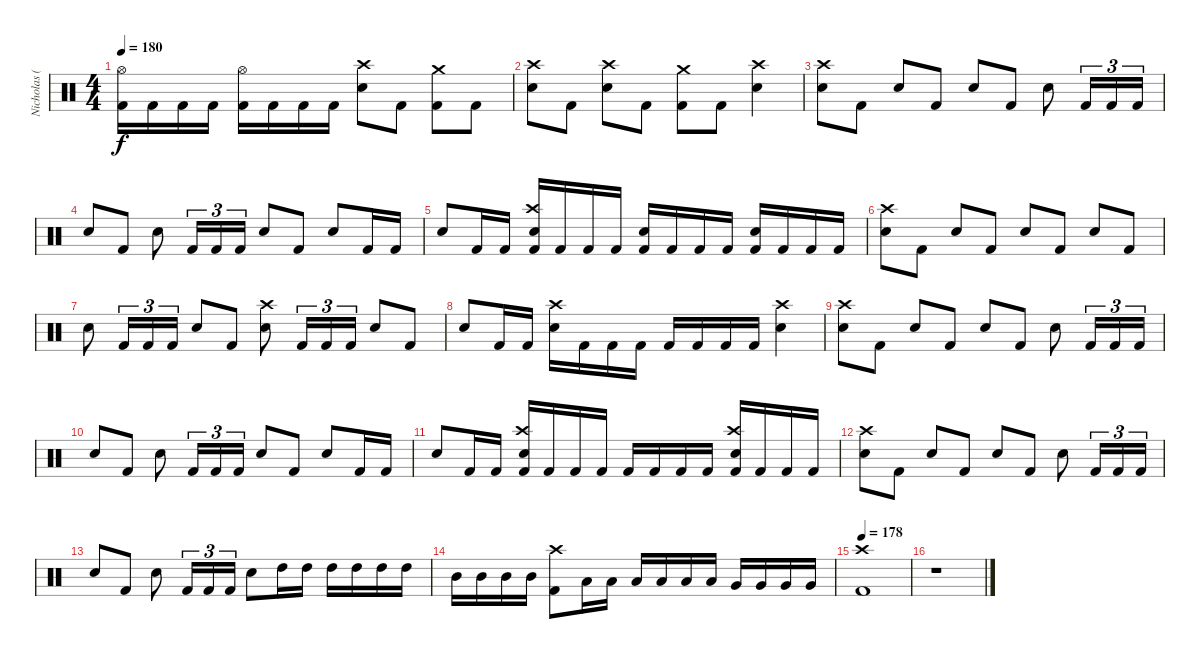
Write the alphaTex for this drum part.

\track ("Nicholas (Drums)" "Nicholas (") {instrument percussion}
\staff {score}
\articulation defaults
\ts (4 4)
\tempo 180
\clef neutral
\ks c
("Hi-Hat (open)" "Kick (hit) 2").16{dy f} "Kick (hit) 2".16 "Kick (hit) 2".16 "Kick (hit) 2".16 ("Hi-Hat (open)" "Kick (hit) 2").16 "Kick (hit) 2".16 "Kick (hit) 2".16 "Kick (hit) 2".16 ("Crash high (hit)" "Electric Snare (hit)").8 "Kick (hit) 2".8 ("Crash medium (hit)" "Kick (hit) 2").8 "Kick (hit) 2".8 |
("Crash high (hit)" "Electric Snare (hit)").8 "Kick (hit) 2".8 ("Crash high (hit)" "Electric Snare (hit)").8 "Kick (hit) 2".8 ("Crash medium (hit)" "Kick (hit) 2").8 "Kick (hit) 2".8 ("Crash high (hit)" "Electric Snare (hit)").4 |
("Crash high (hit)" "Electric Snare (hit)").8 "Kick (hit) 2".8 "Electric Snare (hit)".8 "Kick (hit) 2".8 "Electric Snare (hit)".8 "Kick (hit) 2".8 "Electric Snare (hit)".8 "Kick (hit) 2".16{tu (3 2)} "Kick (hit) 2".16{tu (3 2)} "Kick (hit) 2".16{tu (3 2)} |
"Electric Snare (hit)".8 "Kick (hit) 2".8 "Electric Snare (hit)".8 "Kick (hit) 2".16{tu (3 2)} "Kick (hit) 2".16{tu (3 2)} "Kick (hit) 2".16{tu (3 2)} "Electric Snare (hit)".8 "Kick (hit) 2".8 "Electric Snare (hit)".8 "Kick (hit) 2".16 "Kick (hit) 2".16 |
"Electric Snare (hit)".8 "Kick (hit) 2".16 "Kick (hit) 2".16 ("Crash high (hit)" "Electric Snare (hit)" "Kick (hit) 2").16 "Kick (hit) 2".16 "Kick (hit) 2".16 "Kick (hit) 2".16 ("Electric Snare (hit)" "Kick (hit) 2").16 "Kick (hit) 2".16 "Kick (hit) 2".16 "Kick (hit) 2".16 ("Electric Snare (hit)" "Kick (hit) 2").16 "Kick (hit) 2".16 "Kick (hit) 2".16 "Kick (hit) 2".16 |
("Crash high (hit)" "Electric Snare (hit)").8 "Kick (hit) 2".8 "Electric Snare (hit)".8 "Kick (hit) 2".8 "Electric Snare (hit)".8 "Kick (hit) 2".8 "Electric Snare (hit)".8 "Kick (hit) 2".8 |
"Electric Snare (hit)".8 "Kick (hit) 2".16{tu (3 2)} "Kick (hit) 2".16{tu (3 2)} "Kick (hit) 2".16{tu (3 2)} "Electric Snare (hit)".8 "Kick (hit) 2".8 ("Crash high (hit)" "Electric Snare (hit)").8 "Kick (hit) 2".16{tu (3 2)} "Kick (hit) 2".16{tu (3 2)} "Kick (hit) 2".16{tu (3 2)} "Electric Snare (hit)".8 "Kick (hit) 2".8 |
"Electric Snare (hit)".8 "Kick (hit) 2".16 "Kick (hit) 2".16 ("Crash high (hit)" "Electric Snare (hit)").16 "Kick (hit) 2".16 "Kick (hit) 2".16 "Kick (hit) 2".16 "Kick (hit) 2".16 "Kick (hit) 2".16 "Kick (hit) 2".16 "Kick (hit) 2".16 ("Crash high (hit)" "Electric Snare (hit)").4 |
("Crash high (hit)" "Electric Snare (hit)").8 "Kick (hit) 2".8 "Electric Snare (hit)".8 "Kick (hit) 2".8 "Electric Snare (hit)".8 "Kick (hit) 2".8 "Electric Snare (hit)".8 "Kick (hit) 2".16{tu (3 2)} "Kick (hit) 2".16{tu (3 2)} "Kick (hit) 2".16{tu (3 2)} |
"Electric Snare (hit)".8 "Kick (hit) 2".8 "Electric Snare (hit)".8 "Kick (hit) 2".16{tu (3 2)} "Kick (hit) 2".16{tu (3 2)} "Kick (hit) 2".16{tu (3 2)} "Electric Snare (hit)".8 "Kick (hit) 2".8 "Electric Snare (hit)".8 "Kick (hit) 2".16 "Kick (hit) 2".16 |
"Electric Snare (hit)".8 "Kick (hit) 2".16 "Kick (hit) 2".16 ("Crash high (hit)" "Electric Snare (hit)" "Kick (hit) 2").16 "Kick (hit) 2".16 "Kick (hit) 2".16 "Kick (hit) 2".16 "Kick (hit) 2".16 "Kick (hit) 2".16 "Kick (hit) 2".16 "Kick (hit) 2".16 ("Crash high (hit)" "Electric Snare (hit)" "Kick (hit) 2").16 "Kick (hit) 2".16 "Kick (hit) 2".16 "Kick (hit) 2".16 |
("Crash high (hit)" "Electric Snare (hit)").8 "Kick (hit) 2".8 "Electric Snare (hit)".8 "Kick (hit) 2".8 "Electric Snare (hit)".8 "Kick (hit) 2".8 "Electric Snare (hit)".8 "Kick (hit) 2".16{tu (3 2)} "Kick (hit) 2".16{tu (3 2)} "Kick (hit) 2".16{tu (3 2)} |
"Electric Snare (hit)".8 "Kick (hit) 2".8 "Electric Snare (hit)".8 "Kick (hit) 2".16{tu (3 2)} "Kick (hit) 2".16{tu (3 2)} "Kick (hit) 2".16{tu (3 2)} "Electric Snare (hit)".8 "High Tom (hit)".16 "High Tom (hit)".16 "High Tom (hit)".16 "High Tom (hit)".16 "High Tom (hit)".16 "High Tom (hit)".16 |
"Mid Tom (hit)".16 "Mid Tom (hit)".16 "Mid Tom (hit)".16 "Mid Tom (hit)".16 ("Crash high (hit)" "Kick (hit) 2").8 "Low Tom (hit)".16 "Low Tom (hit)".16 "Low Tom (hit)".16 "Low Tom (hit)".16 "Low Tom (hit)".16 "Low Tom (hit)".16 "Very Low Tom (hit)".16 "Very Low Tom (hit)".16 "Very Low Tom (hit)".16 "Very Low Tom (hit)".16 |
\tempo 178
("Crash high (hit)" "Kick (hit) 2").1 |
r.1
